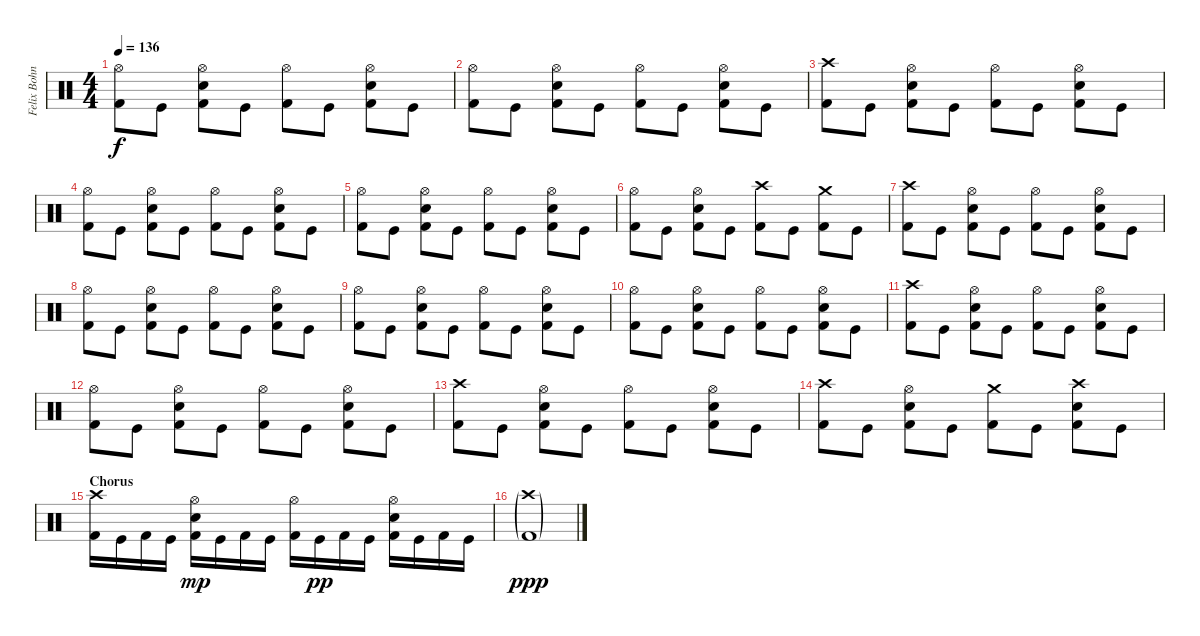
\track ("Felix Bohnke" "Felix Bohn") {instrument percussion}
\staff {score}
\articulation defaults
\ts (4 4)
\tempo 136
\clef neutral
\ks c
("Hi-Hat (open)" "Kick (hit) 2").8{dy f} "Kick (hit)".8 ("Hi-Hat (open)" "Snare (hit) 2" "Kick (hit) 2").8 "Kick (hit)".8 ("Hi-Hat (open)" "Kick (hit) 2").8 "Kick (hit)".8 ("Hi-Hat (open)" "Snare (hit) 2" "Kick (hit) 2").8 "Kick (hit)".8 |
("Hi-Hat (open)" "Kick (hit) 2").8 "Kick (hit)".8 ("Hi-Hat (open)" "Snare (hit) 2" "Kick (hit) 2").8 "Kick (hit)".8 ("Hi-Hat (open)" "Kick (hit) 2").8 "Kick (hit)".8 ("Hi-Hat (open)" "Snare (hit) 2" "Kick (hit) 2").8 "Kick (hit)".8 |
("Crash high (hit)" "Kick (hit) 2").8 "Kick (hit)".8 ("Hi-Hat (open)" "Snare (hit) 2" "Kick (hit) 2").8 "Kick (hit)".8 ("Hi-Hat (open)" "Kick (hit) 2").8 "Kick (hit)".8 ("Hi-Hat (open)" "Snare (hit) 2" "Kick (hit) 2").8 "Kick (hit)".8 |
("Hi-Hat (open)" "Kick (hit) 2").8 "Kick (hit)".8 ("Hi-Hat (open)" "Snare (hit) 2" "Kick (hit) 2").8 "Kick (hit)".8 ("Hi-Hat (open)" "Kick (hit) 2").8 "Kick (hit)".8 ("Hi-Hat (open)" "Snare (hit) 2" "Kick (hit) 2").8 "Kick (hit)".8 |
("Hi-Hat (open)" "Kick (hit) 2").8 "Kick (hit)".8 ("Hi-Hat (open)" "Snare (hit) 2" "Kick (hit) 2").8 "Kick (hit)".8 ("Hi-Hat (open)" "Kick (hit) 2").8 "Kick (hit)".8 ("Hi-Hat (open)" "Snare (hit) 2" "Kick (hit) 2").8 "Kick (hit)".8 |
("Hi-Hat (open)" "Kick (hit) 2").8 "Kick (hit)".8 ("Hi-Hat (open)" "Snare (hit) 2" "Kick (hit) 2").8 "Kick (hit)".8 ("Crash high (hit)" "Kick (hit) 2").8 "Kick (hit)".8 ("Crash medium (hit)" "Kick (hit) 2").8 "Kick (hit)".8 |
("Crash high (hit)" "Kick (hit) 2").8 "Kick (hit)".8 ("Hi-Hat (open)" "Snare (hit) 2" "Kick (hit) 2").8 "Kick (hit)".8 ("Hi-Hat (open)" "Kick (hit) 2").8 "Kick (hit)".8 ("Hi-Hat (open)" "Snare (hit) 2" "Kick (hit) 2").8 "Kick (hit)".8 |
("Hi-Hat (open)" "Kick (hit) 2").8 "Kick (hit)".8 ("Hi-Hat (open)" "Snare (hit) 2" "Kick (hit) 2").8 "Kick (hit)".8 ("Hi-Hat (open)" "Kick (hit) 2").8 "Kick (hit)".8 ("Hi-Hat (open)" "Snare (hit) 2" "Kick (hit) 2").8 "Kick (hit)".8 |
("Hi-Hat (open)" "Kick (hit) 2").8 "Kick (hit)".8 ("Hi-Hat (open)" "Snare (hit) 2" "Kick (hit) 2").8 "Kick (hit)".8 ("Hi-Hat (open)" "Kick (hit) 2").8 "Kick (hit)".8 ("Hi-Hat (open)" "Snare (hit) 2" "Kick (hit) 2").8 "Kick (hit)".8 |
("Hi-Hat (open)" "Kick (hit) 2").8 "Kick (hit)".8 ("Hi-Hat (open)" "Snare (hit) 2" "Kick (hit) 2").8 "Kick (hit)".8 ("Hi-Hat (open)" "Kick (hit) 2").8 "Kick (hit)".8 ("Hi-Hat (open)" "Snare (hit) 2" "Kick (hit) 2").8 "Kick (hit)".8 |
("Crash high (hit)" "Kick (hit) 2").8 "Kick (hit)".8 ("Hi-Hat (open)" "Snare (hit) 2" "Kick (hit) 2").8 "Kick (hit)".8 ("Hi-Hat (open)" "Kick (hit) 2").8 "Kick (hit)".8 ("Hi-Hat (open)" "Snare (hit) 2" "Kick (hit) 2").8 "Kick (hit)".8 |
("Hi-Hat (open)" "Kick (hit) 2").8 "Kick (hit)".8 ("Hi-Hat (open)" "Snare (hit) 2" "Kick (hit) 2").8 "Kick (hit)".8 ("Hi-Hat (open)" "Kick (hit) 2").8 "Kick (hit)".8 ("Hi-Hat (open)" "Snare (hit) 2" "Kick (hit) 2").8 "Kick (hit)".8 |
("Crash high (hit)" "Kick (hit) 2").8 "Kick (hit)".8 ("Hi-Hat (open)" "Snare (hit) 2" "Kick (hit) 2").8 "Kick (hit)".8 ("Hi-Hat (open)" "Kick (hit) 2").8 "Kick (hit)".8 ("Hi-Hat (open)" "Snare (hit) 2" "Kick (hit) 2").8 "Kick (hit)".8 |
("Crash high (hit)" "Kick (hit) 2").8 "Kick (hit)".8 ("Hi-Hat (open)" "Snare (hit) 2" "Kick (hit) 2").8 "Kick (hit)".8 ("Crash medium (hit)" "Kick (hit) 2").8 "Kick (hit)".8 ("Crash high (hit)" "Snare (hit) 2" "Kick (hit) 2").8 "Kick (hit)".8 |
\section ("" "Chorus")
("Crash high (hit)" "Kick (hit) 2").16 "Kick (hit)".16 "Kick (hit) 2".16 "Kick (hit)".16 ("Hi-Hat (open)" "Snare (hit) 2" "Kick (hit) 2").16{dy mp} "Kick (hit)".16 "Kick (hit) 2".16 "Kick (hit)".16 ("Hi-Hat (open)" "Kick (hit) 2").16 "Kick (hit)".16{dy pp} "Kick (hit) 2".16 "Kick (hit)".16 ("Hi-Hat (open)" "Snare (hit) 2" "Kick (hit) 2").16 "Kick (hit)".16 "Kick (hit) 2".16 "Kick (hit)".16 |
("Crash high (hit)"{g} "Kick (hit) 2"{g}).1{dy ppp}
